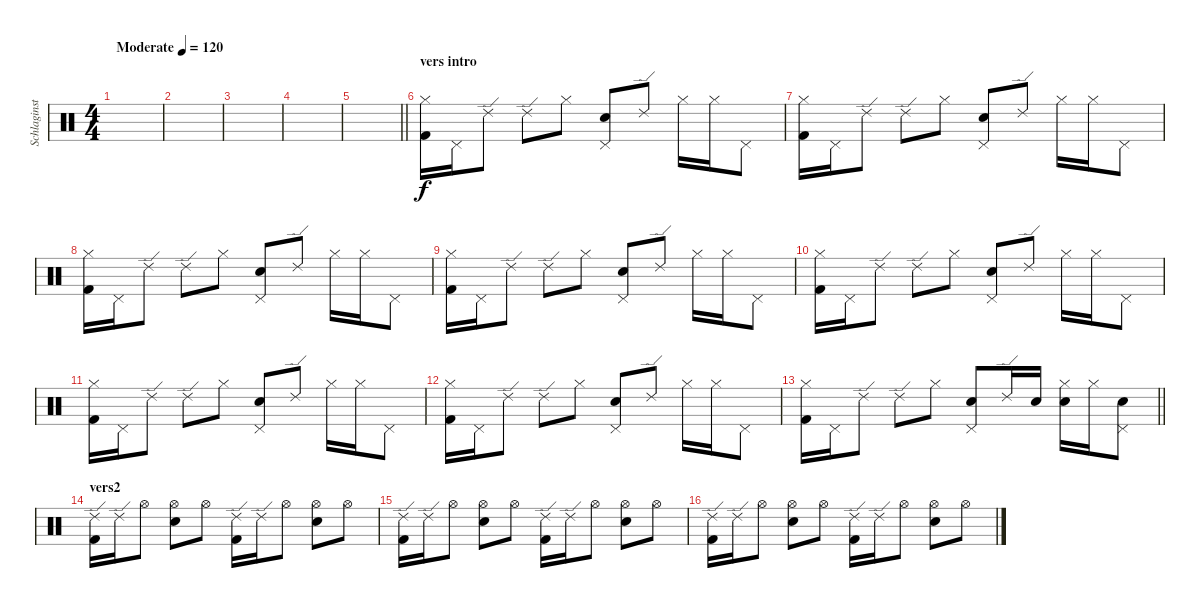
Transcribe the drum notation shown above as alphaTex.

\track ("Schlaginstrumente - Auswahl" "Schlaginst") {instrument percussion}
\staff {score}
\articulation defaults
\ts (4 4)
\tempo (120 "Moderate")
\clef neutral
\ks c
|
|
|
|
\barLineRight lightlight
|
\section ("" "vers intro")
("Hi-Hat (closed)" "Kick (hit) 2").16 "Pedal Hi-Hat (hit)".16 "Ride (edge) 2".8 "Ride (edge) 2".8 "Hi-Hat (closed)".8 ("Pedal Hi-Hat (hit)" "Electric Snare (hit)").8 "Ride (edge) 2".8 "Hi-Hat (closed)".16 "Hi-Hat (closed)".16 "Pedal Hi-Hat (hit)".8 |
("Hi-Hat (closed)" "Kick (hit) 2").16 "Pedal Hi-Hat (hit)".16 "Ride (edge) 2".8 "Ride (edge) 2".8 "Hi-Hat (closed)".8 ("Pedal Hi-Hat (hit)" "Electric Snare (hit)").8 "Ride (edge) 2".8 "Hi-Hat (closed)".16 "Hi-Hat (closed)".16 "Pedal Hi-Hat (hit)".8 |
("Hi-Hat (closed)" "Kick (hit) 2").16 "Pedal Hi-Hat (hit)".16 "Ride (edge) 2".8 "Ride (edge) 2".8 "Hi-Hat (closed)".8 ("Pedal Hi-Hat (hit)" "Electric Snare (hit)").8 "Ride (edge) 2".8 "Hi-Hat (closed)".16 "Hi-Hat (closed)".16 "Pedal Hi-Hat (hit)".8 |
("Hi-Hat (closed)" "Kick (hit) 2").16 "Pedal Hi-Hat (hit)".16 "Ride (edge) 2".8 "Ride (edge) 2".8 "Hi-Hat (closed)".8 ("Pedal Hi-Hat (hit)" "Electric Snare (hit)").8 "Ride (edge) 2".8 "Hi-Hat (closed)".16 "Hi-Hat (closed)".16 "Pedal Hi-Hat (hit)".8 |
("Hi-Hat (closed)" "Kick (hit) 2").16 "Pedal Hi-Hat (hit)".16 "Ride (edge) 2".8 "Ride (edge) 2".8 "Hi-Hat (closed)".8 ("Pedal Hi-Hat (hit)" "Electric Snare (hit)").8 "Ride (edge) 2".8 "Hi-Hat (closed)".16 "Hi-Hat (closed)".16 "Pedal Hi-Hat (hit)".8 |
("Hi-Hat (closed)" "Kick (hit) 2").16 "Pedal Hi-Hat (hit)".16 "Ride (edge) 2".8 "Ride (edge) 2".8 "Hi-Hat (closed)".8 ("Pedal Hi-Hat (hit)" "Electric Snare (hit)").8 "Ride (edge) 2".8 "Hi-Hat (closed)".16 "Hi-Hat (closed)".16 "Pedal Hi-Hat (hit)".8 |
("Hi-Hat (closed)" "Kick (hit) 2").16 "Pedal Hi-Hat (hit)".16 "Ride (edge) 2".8 "Ride (edge) 2".8 "Hi-Hat (closed)".8 ("Pedal Hi-Hat (hit)" "Electric Snare (hit)").8 "Ride (edge) 2".8 "Hi-Hat (closed)".16 "Hi-Hat (closed)".16 "Pedal Hi-Hat (hit)".8 |
\barLineRight lightlight
("Hi-Hat (closed)" "Kick (hit) 2").16 "Pedal Hi-Hat (hit)".16 "Ride (edge) 2".8 "Ride (edge) 2".8 "Hi-Hat (closed)".8 ("Pedal Hi-Hat (hit)" "Electric Snare (hit)").8 "Ride (edge) 2".16 "Electric Snare (hit)".16 ("Hi-Hat (closed)" "Electric Snare (hit)").16 "Hi-Hat (closed)".16 ("Pedal Hi-Hat (hit)" "Electric Snare (hit)").8 |
\section ("" "vers2")
("Ride (edge) 2" "Kick (hit) 2").16 "Ride (edge) 2".16 "Hi-Hat (open)".8 ("Hi-Hat (open)" "Electric Snare (hit)").8 "Hi-Hat (open)".8 ("Ride (edge) 2" "Kick (hit) 2").16 "Ride (edge) 2".16 "Hi-Hat (open)".8 ("Hi-Hat (open)" "Electric Snare (hit)").8 "Hi-Hat (open)".8 |
("Ride (edge) 2" "Kick (hit) 2").16 "Ride (edge) 2".16 "Hi-Hat (open)".8 ("Hi-Hat (open)" "Electric Snare (hit)").8 "Hi-Hat (open)".8 ("Ride (edge) 2" "Kick (hit) 2").16 "Ride (edge) 2".16 "Hi-Hat (open)".8 ("Hi-Hat (open)" "Electric Snare (hit)").8 "Hi-Hat (open)".8 |
("Ride (edge) 2" "Kick (hit) 2").16 "Ride (edge) 2".16 "Hi-Hat (open)".8 ("Hi-Hat (open)" "Electric Snare (hit)").8 "Hi-Hat (open)".8 ("Ride (edge) 2" "Kick (hit) 2").16 "Ride (edge) 2".16 "Hi-Hat (open)".8 ("Hi-Hat (open)" "Electric Snare (hit)").8 "Hi-Hat (open)".8
